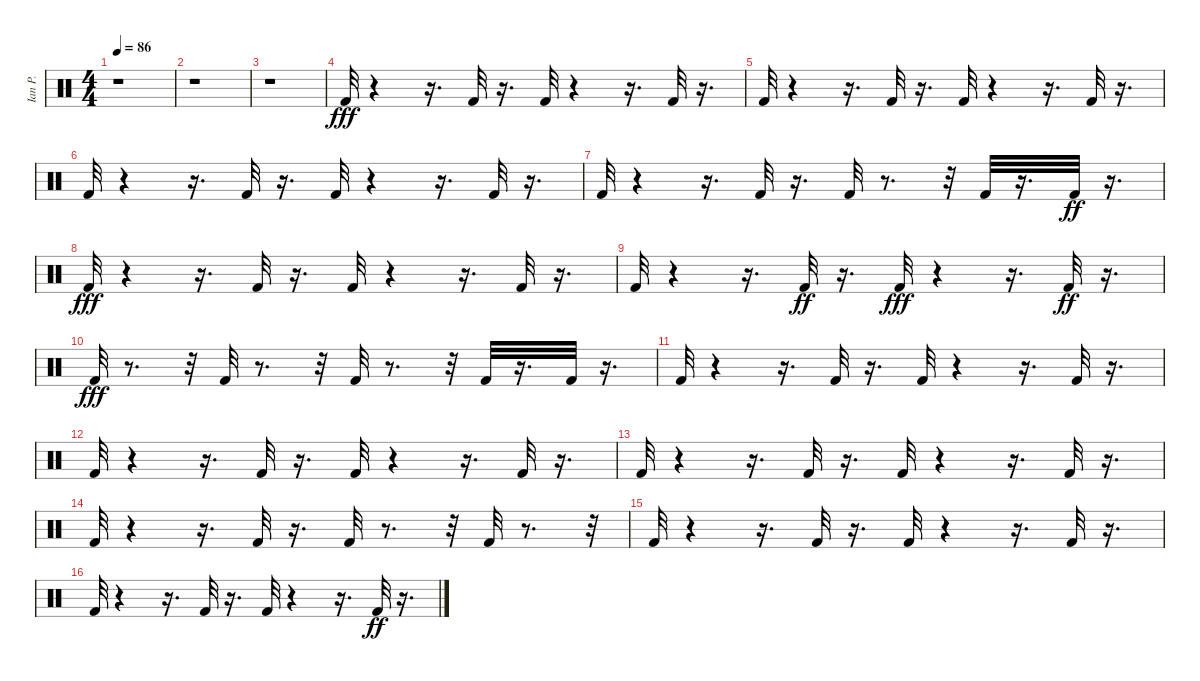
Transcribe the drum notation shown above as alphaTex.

\track ("Ian P." "Ian P.") {instrument percussion}
\staff {score}
\articulation defaults
\ts (4 4)
\tempo 86
\clef neutral
\ks c
r.1{dy fff} |
r.1 |
r.1 |
"Kick (hit) 2".32{volume 16 balance 8} r.4 r.16{d} "Kick (hit) 2".32 r.16{d} "Kick (hit) 2".32 r.4 r.16{d} "Kick (hit) 2".32 r.16{d} |
"Kick (hit) 2".32 r.4 r.16{d} "Kick (hit) 2".32 r.16{d} "Kick (hit) 2".32 r.4 r.16{d} "Kick (hit) 2".32 r.16{d} |
"Kick (hit) 2".32 r.4 r.16{d} "Kick (hit) 2".32 r.16{d} "Kick (hit) 2".32 r.4 r.16{d} "Kick (hit) 2".32 r.16{d} |
"Kick (hit) 2".32 r.4 r.16{d} "Kick (hit) 2".32 r.16{d} "Kick (hit) 2".32 r.8{d} r.32 "Kick (hit) 2".32 r.16{d} "Kick (hit) 2".32{dy ff} r.16{d} |
"Kick (hit) 2".32{dy fff} r.4 r.16{d} "Kick (hit) 2".32 r.16{d} "Kick (hit) 2".32 r.4 r.16{d} "Kick (hit) 2".32 r.16{d} |
"Kick (hit) 2".32 r.4 r.16{d} "Kick (hit) 2".32{dy ff} r.16{d} "Kick (hit) 2".32{dy fff} r.4 r.16{d} "Kick (hit) 2".32{dy ff} r.16{d} |
"Kick (hit) 2".32{dy fff} r.8{d} r.32 "Kick (hit) 2".32 r.8{d} r.32 "Kick (hit) 2".32 r.8{d} r.32 "Kick (hit) 2".32 r.16{d} "Kick (hit) 2".32 r.16{d} |
"Kick (hit) 2".32 r.4 r.16{d} "Kick (hit) 2".32 r.16{d} "Kick (hit) 2".32 r.4 r.16{d} "Kick (hit) 2".32 r.16{d} |
"Kick (hit) 2".32 r.4 r.16{d} "Kick (hit) 2".32 r.16{d} "Kick (hit) 2".32 r.4 r.16{d} "Kick (hit) 2".32 r.16{d} |
"Kick (hit) 2".32 r.4 r.16{d} "Kick (hit) 2".32 r.16{d} "Kick (hit) 2".32 r.4 r.16{d} "Kick (hit) 2".32 r.16{d} |
"Kick (hit) 2".32 r.4 r.16{d} "Kick (hit) 2".32 r.16{d} "Kick (hit) 2".32 r.8{d} r.32 "Kick (hit) 2".32 r.8{d} r.32 |
"Kick (hit) 2".32 r.4 r.16{d} "Kick (hit) 2".32 r.16{d} "Kick (hit) 2".32 r.4 r.16{d} "Kick (hit) 2".32 r.16{d} |
"Kick (hit) 2".32 r.4 r.16{d} "Kick (hit) 2".32 r.16{d} "Kick (hit) 2".32 r.4 r.16{d} "Kick (hit) 2".32{dy ff} r.16{d}
